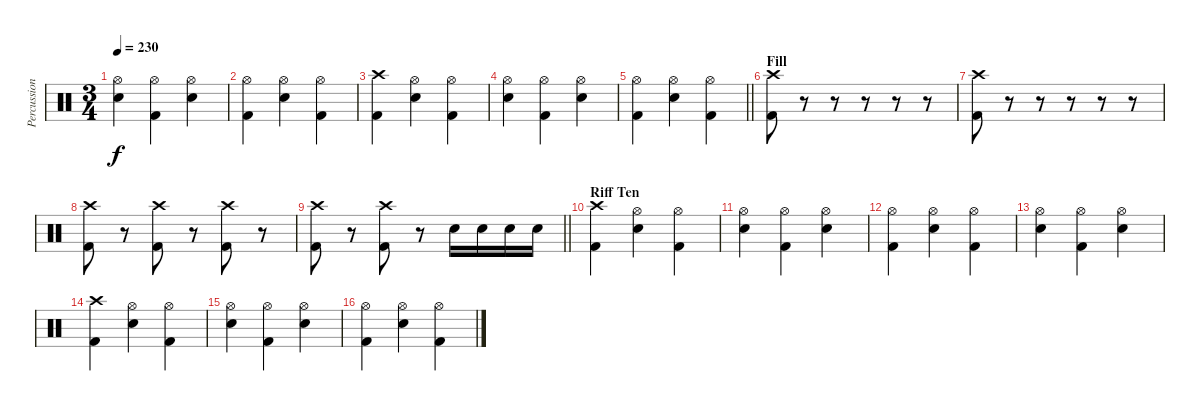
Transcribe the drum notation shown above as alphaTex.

\track ("Percussion" "Percussion") {instrument percussion}
\staff {score}
\articulation defaults
\ts (3 4)
\tempo 230
\clef neutral
\ks c
("Hi-Hat (open)" "Electric Snare (hit)").4{dy f} ("Hi-Hat (open)" "Kick (hit) 2").4 ("Hi-Hat (open)" "Electric Snare (hit)").4 |
("Hi-Hat (open)" "Kick (hit) 2").4 ("Hi-Hat (open)" "Electric Snare (hit)").4 ("Hi-Hat (open)" "Kick (hit) 2").4 |
("Crash high (hit)" "Kick (hit) 2").4 ("Hi-Hat (open)" "Electric Snare (hit)").4 ("Hi-Hat (open)" "Kick (hit) 2").4 |
("Hi-Hat (open)" "Electric Snare (hit)").4 ("Hi-Hat (open)" "Kick (hit) 2").4 ("Hi-Hat (open)" "Electric Snare (hit)").4 |
\barLineRight lightlight
("Hi-Hat (open)" "Kick (hit) 2").4 ("Hi-Hat (open)" "Electric Snare (hit)").4 ("Hi-Hat (open)" "Kick (hit) 2").4 |
\section ("" "Fill")
("Crash high (hit)" "Kick (hit) 2").8 r.8{volume 0} r.8 r.8 r.8 r.8 |
("Crash high (hit)" "Kick (hit) 2").8{volume 13} r.8{volume 0} r.8 r.8 r.8 r.8 |
("Crash high (hit)" "Kick (hit) 2").8{volume 13} r.8{volume 0} ("Crash high (hit)" "Kick (hit) 2").8{volume 13} r.8{volume 0} ("Crash high (hit)" "Kick (hit) 2").8{volume 13} r.8{volume 0} |
\barLineRight lightlight
("Crash high (hit)" "Kick (hit) 2").8{volume 13} r.8{volume 0} ("Crash high (hit)" "Kick (hit) 2").8{volume 13} r.8 "Electric Snare (hit)".16 "Electric Snare (hit)".16 "Electric Snare (hit)".16 "Electric Snare (hit)".16 |
\section ("" "Riff Ten")
("Crash high (hit)" "Kick (hit) 2").4 ("Hi-Hat (open)" "Electric Snare (hit)").4 ("Hi-Hat (open)" "Kick (hit) 2").4 |
("Hi-Hat (open)" "Electric Snare (hit)").4 ("Hi-Hat (open)" "Kick (hit) 2").4 ("Hi-Hat (open)" "Electric Snare (hit)").4 |
("Hi-Hat (open)" "Kick (hit) 2").4 ("Hi-Hat (open)" "Electric Snare (hit)").4 ("Hi-Hat (open)" "Kick (hit) 2").4 |
("Hi-Hat (open)" "Electric Snare (hit)").4 ("Hi-Hat (open)" "Kick (hit) 2").4 ("Hi-Hat (open)" "Electric Snare (hit)").4 |
("Crash high (hit)" "Kick (hit) 2").4 ("Hi-Hat (open)" "Electric Snare (hit)").4 ("Hi-Hat (open)" "Kick (hit) 2").4 |
("Hi-Hat (open)" "Electric Snare (hit)").4 ("Hi-Hat (open)" "Kick (hit) 2").4 ("Hi-Hat (open)" "Electric Snare (hit)").4 |
("Hi-Hat (open)" "Kick (hit) 2").4 ("Hi-Hat (open)" "Electric Snare (hit)").4 ("Hi-Hat (open)" "Kick (hit) 2").4
